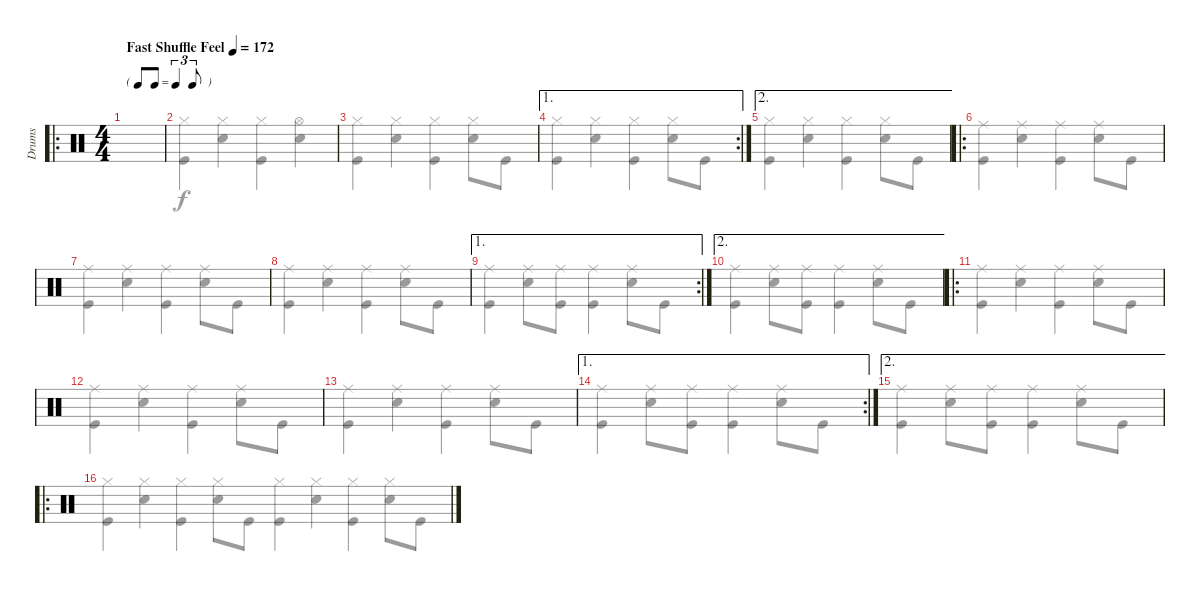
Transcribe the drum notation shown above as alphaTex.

\track ("Drums" "Drums") {instrument percussion}
\staff {score}
\articulation defaults
\voice
\ro
\ts (4 4)
\tf triplet8th
\tempo (172 "Fast Shuffle Feel")
\clef neutral
\ks c
|
|
|
\ae 1
\rc 2
|
\ae 2
|
\ro
|
|
|
\ae 1
\rc 2
|
\ae 2
|
\ro
|
|
|
\ae 1
\rc 2
|
\ae 2
|
\ro
\voice
\clef neutral
\ks c
("Hi-Hat (closed)" "Kick (hit)").4{dy f} ("Hi-Hat (closed)" "Snare (hit) 2").4 ("Hi-Hat (closed)" "Kick (hit)").4 ("Hi-Hat (closed)" "Snare (hit) 2").8 "Kick (hit)".8 |
("Hi-Hat (closed)" "Kick (hit)").4 ("Hi-Hat (closed)" "Snare (hit) 2").4 ("Hi-Hat (closed)" "Kick (hit)").4 ("Hi-Hat (open)" "Snare (hit) 2").4 |
("Hi-Hat (closed)" "Kick (hit)").4 ("Hi-Hat (closed)" "Snare (hit) 2").4 ("Hi-Hat (closed)" "Kick (hit)").4 ("Hi-Hat (closed)" "Snare (hit) 2").8 "Kick (hit)".8 |
("Hi-Hat (closed)" "Kick (hit)").4 ("Hi-Hat (closed)" "Snare (hit) 2").4 ("Hi-Hat (closed)" "Kick (hit)").4 ("Hi-Hat (closed)" "Snare (hit) 2").8 "Kick (hit)".8 |
("Hi-Hat (closed)" "Kick (hit)").4 ("Hi-Hat (closed)" "Snare (hit) 2").4 ("Hi-Hat (closed)" "Kick (hit)").4 ("Hi-Hat (closed)" "Snare (hit) 2").8 "Kick (hit)".8 |
("Ride (middle)" "Kick (hit)").4 ("Ride (middle)" "Snare (hit) 2").4 ("Ride (middle)" "Kick (hit)").4 ("Ride (middle)" "Snare (hit) 2").8 "Kick (hit)".8 |
("Ride (middle)" "Kick (hit)").4 ("Ride (middle)" "Snare (hit) 2").4 ("Ride (middle)" "Kick (hit)").4 ("Ride (middle)" "Snare (hit) 2").8 "Kick (hit)".8 |
("Ride (middle)" "Kick (hit)").4 ("Ride (middle)" "Snare (hit) 2").4 ("Ride (middle)" "Kick (hit)").4 ("Ride (middle)" "Snare (hit) 2").8 "Kick (hit)".8 |
("Ride (middle)" "Kick (hit)").4 ("Ride (middle)" "Snare (hit) 2").8 ("Ride (middle)" "Kick (hit)").8 ("Ride (middle)" "Kick (hit)").4 ("Ride (middle)" "Snare (hit) 2").8 "Kick (hit)".8 |
("Ride (middle)" "Kick (hit)").4 ("Ride (middle)" "Snare (hit) 2").8 ("Ride (middle)" "Kick (hit)").8 ("Ride (middle)" "Kick (hit)").4 ("Ride (middle)" "Snare (hit) 2").8 "Kick (hit)".8 |
("Ride (middle)" "Kick (hit)").4 ("Ride (middle)" "Snare (hit) 2").4 ("Ride (middle)" "Kick (hit)").4 ("Ride (middle)" "Snare (hit) 2").8 "Kick (hit)".8 |
("Ride (middle)" "Kick (hit)").4 ("Ride (middle)" "Snare (hit) 2").4 ("Ride (middle)" "Kick (hit)").4 ("Ride (middle)" "Snare (hit) 2").8 "Kick (hit)".8 |
("Ride (middle)" "Kick (hit)").4 ("Ride (middle)" "Snare (hit) 2").4 ("Ride (middle)" "Kick (hit)").4 ("Ride (middle)" "Snare (hit) 2").8 "Kick (hit)".8 |
("Ride (middle)" "Kick (hit)").4 ("Ride (middle)" "Snare (hit) 2").8 ("Ride (middle)" "Kick (hit)").8 ("Ride (middle)" "Kick (hit)").4 ("Ride (middle)" "Snare (hit) 2").8 "Kick (hit)".8 |
("Ride (middle)" "Kick (hit)").4 ("Ride (middle)" "Snare (hit) 2").8 ("Ride (middle)" "Kick (hit)").8 ("Ride (middle)" "Kick (hit)").4 ("Ride (middle)" "Snare (hit) 2").8 "Kick (hit)".8 |
("Hi-Hat (closed)" "Kick (hit)").4 ("Hi-Hat (closed)" "Snare (hit) 2").4 ("Hi-Hat (closed)" "Kick (hit)").4 ("Hi-Hat (closed)" "Snare (hit) 2").8 "Kick (hit)".8
